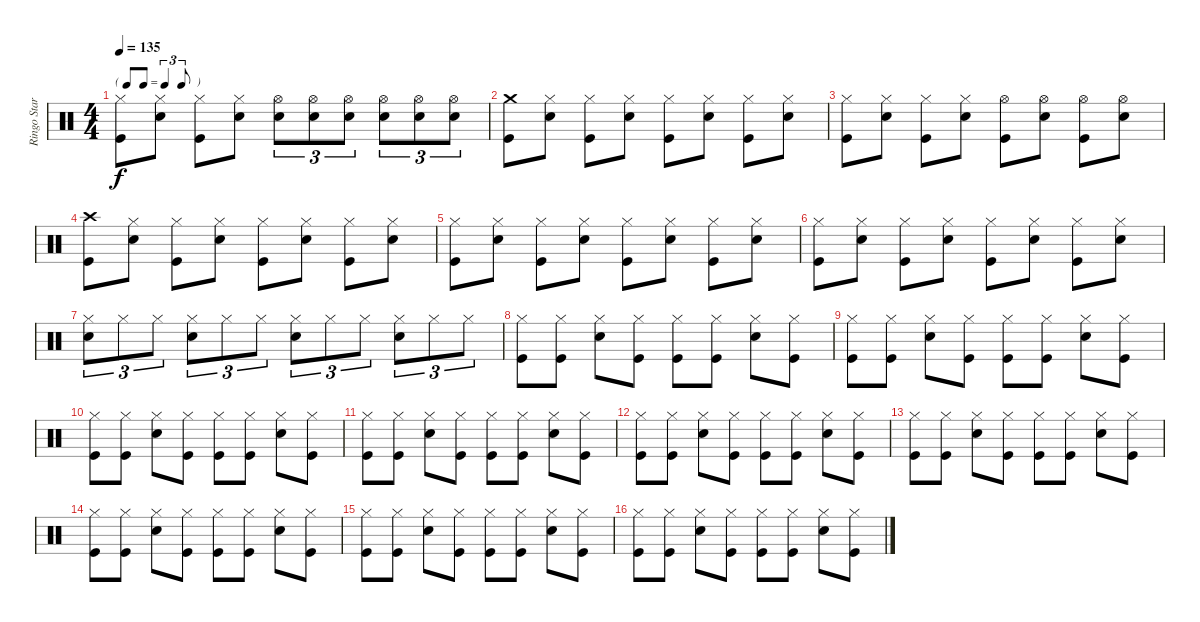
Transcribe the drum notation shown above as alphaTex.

\track ("Ringo Star" "Ringo Star") {instrument percussion}
\staff {score}
\articulation defaults
\ts (4 4)
\tf triplet8th
\tempo 135
\clef neutral
\ks c
("Hi-Hat (closed)" "Kick (hit)").8{dy f} ("Hi-Hat (closed)" "Snare (hit) 2").8 ("Hi-Hat (closed)" "Kick (hit)").8 ("Hi-Hat (closed)" "Snare (hit) 2").8 ("Hi-Hat (open)" "Snare (hit) 2").8{tu (3 2)} ("Hi-Hat (open)" "Snare (hit) 2").8{tu (3 2)} ("Hi-Hat (open)" "Snare (hit) 2").8{tu (3 2)} ("Hi-Hat (open)" "Snare (hit) 2").8{tu (3 2)} ("Hi-Hat (open)" "Snare (hit) 2").8{tu (3 2)} ("Hi-Hat (open)" "Snare (hit) 2").8{tu (3 2)} |
("Crash medium (hit)" "Kick (hit)").8 ("Hi-Hat (closed)" "Snare (hit) 2").8 ("Hi-Hat (closed)" "Kick (hit)").8 ("Hi-Hat (closed)" "Snare (hit) 2").8 ("Hi-Hat (closed)" "Kick (hit)").8 ("Hi-Hat (closed)" "Snare (hit) 2").8 ("Hi-Hat (closed)" "Kick (hit)").8 ("Hi-Hat (closed)" "Snare (hit) 2").8 |
("Hi-Hat (closed)" "Kick (hit)").8 ("Hi-Hat (closed)" "Snare (hit) 2").8 ("Hi-Hat (closed)" "Kick (hit)").8 ("Hi-Hat (closed)" "Snare (hit) 2").8 ("Hi-Hat (open)" "Kick (hit)").8 ("Hi-Hat (open)" "Snare (hit) 2").8 ("Hi-Hat (open)" "Kick (hit)").8 ("Hi-Hat (open)" "Snare (hit) 2").8 |
("Crash high (hit)" "Kick (hit)").8 ("Hi-Hat (closed)" "Snare (hit) 2").8 ("Hi-Hat (closed)" "Kick (hit)").8 ("Hi-Hat (closed)" "Snare (hit) 2").8 ("Hi-Hat (closed)" "Kick (hit)").8 ("Hi-Hat (closed)" "Snare (hit) 2").8 ("Hi-Hat (closed)" "Kick (hit)").8 ("Hi-Hat (closed)" "Snare (hit) 2").8 |
("Hi-Hat (closed)" "Kick (hit)").8 ("Hi-Hat (closed)" "Snare (hit) 2").8 ("Hi-Hat (closed)" "Kick (hit)").8 ("Hi-Hat (closed)" "Snare (hit) 2").8 ("Hi-Hat (closed)" "Kick (hit)").8 ("Hi-Hat (closed)" "Snare (hit) 2").8 ("Hi-Hat (closed)" "Kick (hit)").8 ("Hi-Hat (closed)" "Snare (hit) 2").8 |
("Hi-Hat (closed)" "Kick (hit)").8 ("Hi-Hat (closed)" "Snare (hit) 2").8 ("Hi-Hat (closed)" "Kick (hit)").8 ("Hi-Hat (closed)" "Snare (hit) 2").8 ("Hi-Hat (closed)" "Kick (hit)").8 ("Hi-Hat (closed)" "Snare (hit) 2").8 ("Hi-Hat (closed)" "Kick (hit)").8 ("Hi-Hat (closed)" "Snare (hit) 2").8 |
("Hi-Hat (closed)" "Snare (hit) 2").8{tu (3 2)} "Hi-Hat (closed)".8{tu (3 2)} "Hi-Hat (closed)".8{tu (3 2)} ("Hi-Hat (closed)" "Snare (hit) 2").8{tu (3 2)} "Hi-Hat (closed)".8{tu (3 2)} "Hi-Hat (closed)".8{tu (3 2)} ("Hi-Hat (closed)" "Snare (hit) 2").8{tu (3 2)} "Hi-Hat (closed)".8{tu (3 2)} "Hi-Hat (closed)".8{tu (3 2)} ("Hi-Hat (closed)" "Snare (hit) 2").8{tu (3 2)} "Hi-Hat (closed)".8{tu (3 2)} "Hi-Hat (closed)".8{tu (3 2)} |
("Hi-Hat (closed)" "Kick (hit)").8 ("Hi-Hat (closed)" "Kick (hit)").8 ("Hi-Hat (closed)" "Snare (hit) 2").8 ("Hi-Hat (closed)" "Kick (hit)").8 ("Hi-Hat (closed)" "Kick (hit)").8 ("Hi-Hat (closed)" "Kick (hit)").8 ("Hi-Hat (closed)" "Snare (hit) 2").8 ("Hi-Hat (closed)" "Kick (hit)").8 |
("Hi-Hat (closed)" "Kick (hit)").8 ("Hi-Hat (closed)" "Kick (hit)").8 ("Hi-Hat (closed)" "Snare (hit) 2").8 ("Hi-Hat (closed)" "Kick (hit)").8 ("Hi-Hat (closed)" "Kick (hit)").8 ("Hi-Hat (closed)" "Kick (hit)").8 ("Hi-Hat (closed)" "Snare (hit) 2").8 ("Hi-Hat (closed)" "Kick (hit)").8 |
("Hi-Hat (closed)" "Kick (hit)").8 ("Hi-Hat (closed)" "Kick (hit)").8 ("Hi-Hat (closed)" "Snare (hit) 2").8 ("Hi-Hat (closed)" "Kick (hit)").8 ("Hi-Hat (closed)" "Kick (hit)").8 ("Hi-Hat (closed)" "Kick (hit)").8 ("Hi-Hat (closed)" "Snare (hit) 2").8 ("Hi-Hat (closed)" "Kick (hit)").8 |
("Hi-Hat (closed)" "Kick (hit)").8 ("Hi-Hat (closed)" "Kick (hit)").8 ("Hi-Hat (closed)" "Snare (hit) 2").8 ("Hi-Hat (closed)" "Kick (hit)").8 ("Hi-Hat (closed)" "Kick (hit)").8 ("Hi-Hat (closed)" "Kick (hit)").8 ("Hi-Hat (closed)" "Snare (hit) 2").8 ("Hi-Hat (closed)" "Kick (hit)").8 |
("Hi-Hat (closed)" "Kick (hit)").8 ("Hi-Hat (closed)" "Kick (hit)").8 ("Hi-Hat (closed)" "Snare (hit) 2").8 ("Hi-Hat (closed)" "Kick (hit)").8 ("Hi-Hat (closed)" "Kick (hit)").8 ("Hi-Hat (closed)" "Kick (hit)").8 ("Hi-Hat (closed)" "Snare (hit) 2").8 ("Hi-Hat (closed)" "Kick (hit)").8 |
("Hi-Hat (closed)" "Kick (hit)").8 ("Hi-Hat (closed)" "Kick (hit)").8 ("Hi-Hat (closed)" "Snare (hit) 2").8 ("Hi-Hat (closed)" "Kick (hit)").8 ("Hi-Hat (closed)" "Kick (hit)").8 ("Hi-Hat (closed)" "Kick (hit)").8 ("Hi-Hat (closed)" "Snare (hit) 2").8 ("Hi-Hat (closed)" "Kick (hit)").8 |
("Hi-Hat (closed)" "Kick (hit)").8 ("Hi-Hat (closed)" "Kick (hit)").8 ("Hi-Hat (closed)" "Snare (hit) 2").8 ("Hi-Hat (closed)" "Kick (hit)").8 ("Hi-Hat (closed)" "Kick (hit)").8 ("Hi-Hat (closed)" "Kick (hit)").8 ("Hi-Hat (closed)" "Snare (hit) 2").8 ("Hi-Hat (closed)" "Kick (hit)").8 |
("Hi-Hat (closed)" "Kick (hit)").8 ("Hi-Hat (closed)" "Kick (hit)").8 ("Hi-Hat (closed)" "Snare (hit) 2").8 ("Hi-Hat (closed)" "Kick (hit)").8 ("Hi-Hat (closed)" "Kick (hit)").8 ("Hi-Hat (closed)" "Kick (hit)").8 ("Hi-Hat (closed)" "Snare (hit) 2").8 ("Hi-Hat (closed)" "Kick (hit)").8 |
("Hi-Hat (closed)" "Kick (hit)").8 ("Hi-Hat (closed)" "Kick (hit)").8 ("Hi-Hat (closed)" "Snare (hit) 2").8 ("Hi-Hat (closed)" "Kick (hit)").8 ("Hi-Hat (closed)" "Kick (hit)").8 ("Hi-Hat (closed)" "Kick (hit)").8 ("Hi-Hat (closed)" "Snare (hit) 2").8 ("Hi-Hat (closed)" "Kick (hit)").8
